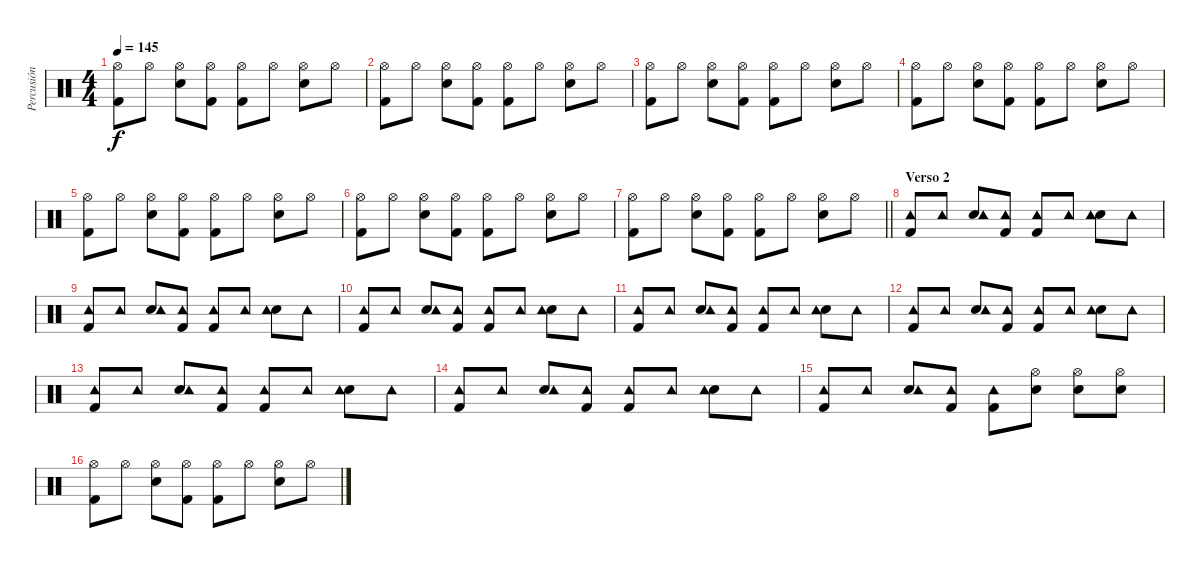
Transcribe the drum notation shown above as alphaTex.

\track ("Percusión" "Percusión") {instrument percussion}
\staff {score}
\articulation defaults
\ts (4 4)
\tempo 145
\clef neutral
\ks c
("Kick (hit) 2" "Hi-Hat (open)").8{dy f} "Hi-Hat (open)".8 ("Electric Snare (hit)" "Hi-Hat (open)").8 ("Kick (hit) 2" "Hi-Hat (open)").8 ("Kick (hit) 2" "Hi-Hat (open)").8 "Hi-Hat (open)".8 ("Electric Snare (hit)" "Hi-Hat (open)").8 "Hi-Hat (open)".8 |
("Kick (hit) 2" "Hi-Hat (open)").8 "Hi-Hat (open)".8 ("Electric Snare (hit)" "Hi-Hat (open)").8 ("Kick (hit) 2" "Hi-Hat (open)").8 ("Kick (hit) 2" "Hi-Hat (open)").8 "Hi-Hat (open)".8 ("Electric Snare (hit)" "Hi-Hat (open)").8 "Hi-Hat (open)".8 |
("Kick (hit) 2" "Hi-Hat (open)").8 "Hi-Hat (open)".8 ("Electric Snare (hit)" "Hi-Hat (open)").8 ("Kick (hit) 2" "Hi-Hat (open)").8 ("Kick (hit) 2" "Hi-Hat (open)").8 "Hi-Hat (open)".8 ("Electric Snare (hit)" "Hi-Hat (open)").8 "Hi-Hat (open)".8 |
("Kick (hit) 2" "Hi-Hat (open)").8 "Hi-Hat (open)".8 ("Electric Snare (hit)" "Hi-Hat (open)").8 ("Kick (hit) 2" "Hi-Hat (open)").8 ("Kick (hit) 2" "Hi-Hat (open)").8 "Hi-Hat (open)".8 ("Electric Snare (hit)" "Hi-Hat (open)").8 "Hi-Hat (open)".8 |
("Kick (hit) 2" "Hi-Hat (open)").8 "Hi-Hat (open)".8 ("Electric Snare (hit)" "Hi-Hat (open)").8 ("Kick (hit) 2" "Hi-Hat (open)").8 ("Kick (hit) 2" "Hi-Hat (open)").8 "Hi-Hat (open)".8 ("Electric Snare (hit)" "Hi-Hat (open)").8 "Hi-Hat (open)".8 |
("Kick (hit) 2" "Hi-Hat (open)").8 "Hi-Hat (open)".8 ("Electric Snare (hit)" "Hi-Hat (open)").8 ("Kick (hit) 2" "Hi-Hat (open)").8 ("Kick (hit) 2" "Hi-Hat (open)").8 "Hi-Hat (open)".8 ("Electric Snare (hit)" "Hi-Hat (open)").8 "Hi-Hat (open)".8 |
\barLineRight lightlight
("Kick (hit) 2" "Hi-Hat (open)").8 "Hi-Hat (open)".8 ("Electric Snare (hit)" "Hi-Hat (open)").8 ("Kick (hit) 2" "Hi-Hat (open)").8 ("Kick (hit) 2" "Hi-Hat (open)").8 "Hi-Hat (open)".8 ("Electric Snare (hit)" "Hi-Hat (open)").8 "Hi-Hat (open)".8 |
\section ("" "Verso 2")
("Kick (hit) 2" "Tambourine (hit)").8 "Tambourine (hit)".8 ("Electric Snare (hit)" "Tambourine (hit)").8 ("Kick (hit) 2" "Tambourine (hit)").8 ("Kick (hit) 2" "Tambourine (hit)").8 "Tambourine (hit)".8 ("Electric Snare (hit)" "Tambourine (hit)").8 "Tambourine (hit)".8 |
("Kick (hit) 2" "Tambourine (hit)").8 "Tambourine (hit)".8 ("Electric Snare (hit)" "Tambourine (hit)").8 ("Kick (hit) 2" "Tambourine (hit)").8 ("Kick (hit) 2" "Tambourine (hit)").8 "Tambourine (hit)".8 ("Electric Snare (hit)" "Tambourine (hit)").8 "Tambourine (hit)".8 |
("Kick (hit) 2" "Tambourine (hit)").8 "Tambourine (hit)".8 ("Electric Snare (hit)" "Tambourine (hit)").8 ("Kick (hit) 2" "Tambourine (hit)").8 ("Kick (hit) 2" "Tambourine (hit)").8 "Tambourine (hit)".8 ("Electric Snare (hit)" "Tambourine (hit)").8 "Tambourine (hit)".8 |
("Kick (hit) 2" "Tambourine (hit)").8 "Tambourine (hit)".8 ("Electric Snare (hit)" "Tambourine (hit)").8 ("Kick (hit) 2" "Tambourine (hit)").8 ("Kick (hit) 2" "Tambourine (hit)").8 "Tambourine (hit)".8 ("Electric Snare (hit)" "Tambourine (hit)").8 "Tambourine (hit)".8 |
("Kick (hit) 2" "Tambourine (hit)").8 "Tambourine (hit)".8 ("Electric Snare (hit)" "Tambourine (hit)").8 ("Kick (hit) 2" "Tambourine (hit)").8 ("Kick (hit) 2" "Tambourine (hit)").8 "Tambourine (hit)".8 ("Electric Snare (hit)" "Tambourine (hit)").8 "Tambourine (hit)".8 |
("Kick (hit) 2" "Tambourine (hit)").8 "Tambourine (hit)".8 ("Electric Snare (hit)" "Tambourine (hit)").8 ("Kick (hit) 2" "Tambourine (hit)").8 ("Kick (hit) 2" "Tambourine (hit)").8 "Tambourine (hit)".8 ("Electric Snare (hit)" "Tambourine (hit)").8 "Tambourine (hit)".8 |
("Kick (hit) 2" "Tambourine (hit)").8 "Tambourine (hit)".8 ("Electric Snare (hit)" "Tambourine (hit)").8 ("Kick (hit) 2" "Tambourine (hit)").8 ("Kick (hit) 2" "Tambourine (hit)").8 "Tambourine (hit)".8 ("Electric Snare (hit)" "Tambourine (hit)").8 "Tambourine (hit)".8 |
("Kick (hit) 2" "Tambourine (hit)").8 "Tambourine (hit)".8 ("Electric Snare (hit)" "Tambourine (hit)").8 ("Kick (hit) 2" "Tambourine (hit)").8 ("Kick (hit) 2" "Tambourine (hit)").8 ("Electric Snare (hit)" "Hi-Hat (open)").8 ("Electric Snare (hit)" "Hi-Hat (open)").8 ("Electric Snare (hit)" "Hi-Hat (open)").8 |
("Kick (hit) 2" "Hi-Hat (open)").8 "Hi-Hat (open)".8 ("Electric Snare (hit)" "Hi-Hat (open)").8 ("Kick (hit) 2" "Hi-Hat (open)").8 ("Kick (hit) 2" "Hi-Hat (open)").8 "Hi-Hat (open)".8 ("Electric Snare (hit)" "Hi-Hat (open)").8 "Hi-Hat (open)".8
